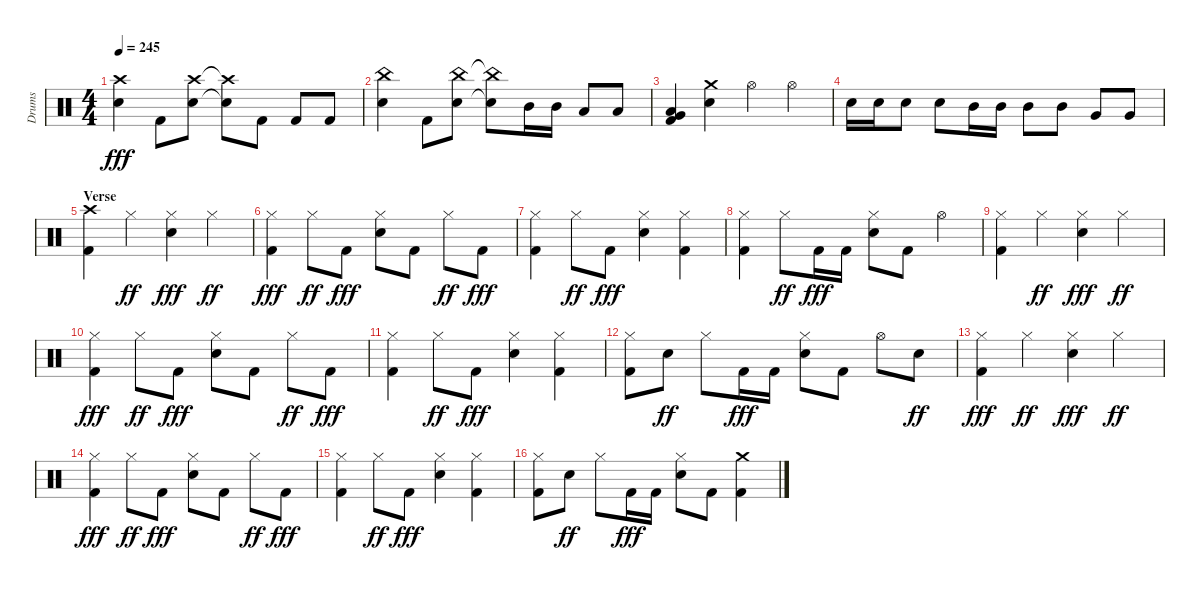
\track ("Drums" "Drums") {instrument percussion}
\staff {score}
\articulation defaults
\ts (4 4)
\tempo 245
\clef neutral
\ks aminor
("Snare (hit) 2" "Crash high (hit)").4{dy fff} "Kick (hit) 2".8 ("Snare (hit) 2" "Crash high (hit)").8 ("Snare (hit) 2"{t} "Crash high (hit)"{t}).8 "Kick (hit) 2".8 "Kick (hit) 2".8 "Kick (hit) 2".8 |
("Snare (hit) 2" "China (hit)").4 "Kick (hit) 2".8 ("Snare (hit) 2" "China (hit)").8 ("Snare (hit) 2"{t} "China (hit)"{t}).8 "Mid Tom (hit)".16 "Mid Tom (hit)".16 "Low Tom (hit)".8 "Low Tom (hit)".8 |
("Low Floor Tom (hit)" "Kick (hit) 2" "Very Low Tom (hit)").4 ("Snare (hit) 2" "Crash medium (hit)").4 "Hi-Hat (open)".4 "Hi-Hat (open)".4 |
"Snare (hit) 2".16 "Snare (hit) 2".16 "Snare (hit) 2".8 "Snare (hit) 2".8 "Mid Tom (hit)".16 "Mid Tom (hit)".16 "Mid Tom (hit)".8 "Mid Tom (hit)".8 "Very Low Tom (hit)".8 "Very Low Tom (hit)".8 |
\section ("" "Verse")
("Kick (hit) 2" "Crash high (hit)").4 "Hi-Hat (closed)".4{dy ff} ("Snare (hit) 2" "Hi-Hat (closed)").4{dy fff} "Hi-Hat (closed)".4{dy ff} |
("Kick (hit) 2" "Hi-Hat (closed)").4{dy fff} "Hi-Hat (closed)".8{dy ff} "Kick (hit) 2".8{dy fff} ("Snare (hit) 2" "Hi-Hat (closed)").8 "Kick (hit) 2".8 "Hi-Hat (closed)".8{dy ff} "Kick (hit) 2".8{dy fff} |
("Kick (hit) 2" "Hi-Hat (closed)").4 "Hi-Hat (closed)".8{dy ff} "Kick (hit) 2".8{dy fff} ("Snare (hit) 2" "Hi-Hat (closed)").4 ("Kick (hit) 2" "Hi-Hat (closed)").4 |
("Kick (hit) 2" "Hi-Hat (closed)").4 "Hi-Hat (closed)".8{dy ff} "Kick (hit) 2".16{dy fff} "Kick (hit) 2".16 ("Snare (hit) 2" "Hi-Hat (closed)").8 "Kick (hit) 2".8 "Hi-Hat (open)".4 |
("Kick (hit) 2" "Hi-Hat (closed)").4 "Hi-Hat (closed)".4{dy ff} ("Snare (hit) 2" "Hi-Hat (closed)").4{dy fff} "Hi-Hat (closed)".4{dy ff} |
("Kick (hit) 2" "Hi-Hat (closed)").4{dy fff} "Hi-Hat (closed)".8{dy ff} "Kick (hit) 2".8{dy fff} ("Snare (hit) 2" "Hi-Hat (closed)").8 "Kick (hit) 2".8 "Hi-Hat (closed)".8{dy ff} "Kick (hit) 2".8{dy fff} |
("Kick (hit) 2" "Hi-Hat (closed)").4 "Hi-Hat (closed)".8{dy ff} "Kick (hit) 2".8{dy fff} ("Snare (hit) 2" "Hi-Hat (closed)").4 ("Kick (hit) 2" "Hi-Hat (closed)").4 |
("Kick (hit) 2" "Hi-Hat (closed)").8 "Snare (hit) 2".8{dy ff} "Hi-Hat (closed)".8 "Kick (hit) 2".16{dy fff} "Kick (hit) 2".16 ("Snare (hit) 2" "Hi-Hat (closed)").8 "Kick (hit) 2".8 "Hi-Hat (open)".8 "Snare (hit) 2".8{dy ff} |
("Kick (hit) 2" "Hi-Hat (closed)").4{dy fff} "Hi-Hat (closed)".4{dy ff} ("Snare (hit) 2" "Hi-Hat (closed)").4{dy fff} "Hi-Hat (closed)".4{dy ff} |
("Kick (hit) 2" "Hi-Hat (closed)").4{dy fff} "Hi-Hat (closed)".8{dy ff} "Kick (hit) 2".8{dy fff} ("Snare (hit) 2" "Hi-Hat (closed)").8 "Kick (hit) 2".8 "Hi-Hat (closed)".8{dy ff} "Kick (hit) 2".8{dy fff} |
("Kick (hit) 2" "Hi-Hat (closed)").4 "Hi-Hat (closed)".8{dy ff} "Kick (hit) 2".8{dy fff} ("Snare (hit) 2" "Hi-Hat (closed)").4 ("Kick (hit) 2" "Hi-Hat (closed)").4 |
("Kick (hit) 2" "Hi-Hat (closed)").8 "Snare (hit) 2".8{dy ff} "Hi-Hat (closed)".8 "Kick (hit) 2".16{dy fff} "Kick (hit) 2".16 ("Snare (hit) 2" "Hi-Hat (closed)").8 "Kick (hit) 2".8 ("Kick (hit) 2" "Crash medium (hit)").4
